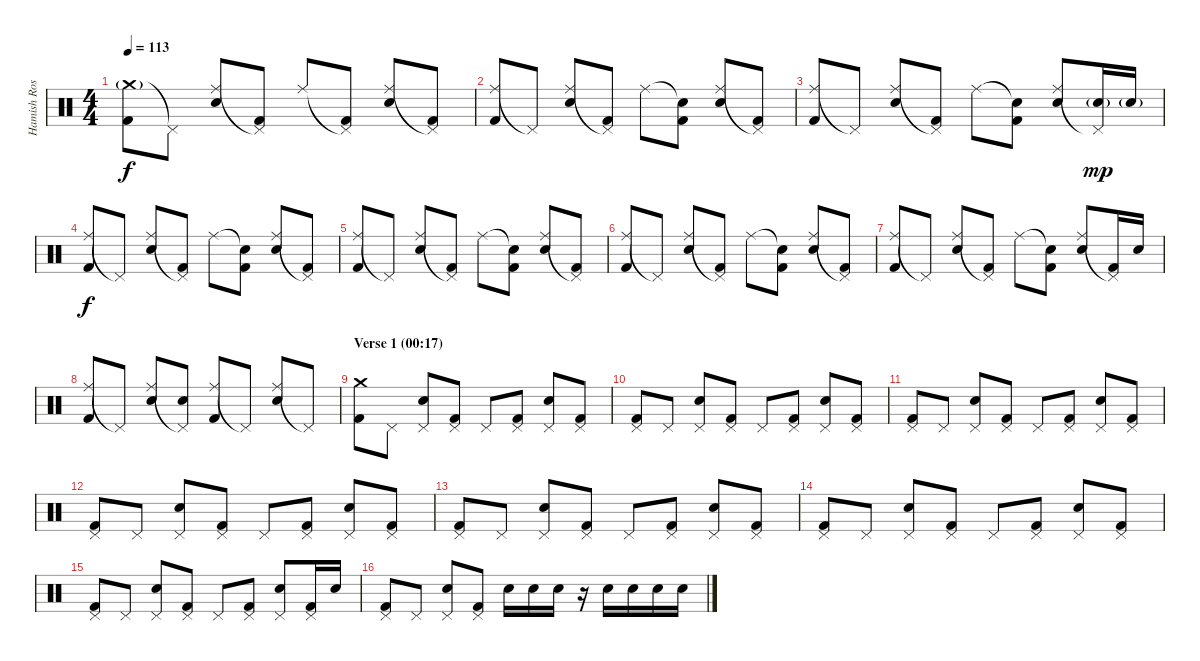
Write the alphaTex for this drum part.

\track ("Hamish Rosser" "Hamish Ros") {instrument percussion}
\staff {score}
\articulation defaults
\ts (4 4)
\tempo 113
\clef neutral
\ks c
("Crash medium (hit)"{g} "Kick (hit) 2").8{dy f} "Pedal Hi-Hat (hit)"{t}.8 ("Ride (middle)" "Electric Snare (hit)").8 ("Pedal Hi-Hat (hit)"{t} "Kick (hit) 2").8 "Ride (middle)".8 ("Pedal Hi-Hat (hit)"{t} "Kick (hit) 2").8 ("Ride (middle)" "Electric Snare (hit)").8 ("Pedal Hi-Hat (hit)"{t} "Kick (hit) 2").8 |
("Ride (middle)" "Kick (hit) 2").8 "Pedal Hi-Hat (hit)"{t}.8 ("Ride (middle)" "Electric Snare (hit)").8 ("Pedal Hi-Hat (hit)"{t} "Kick (hit) 2").8 "Ride (middle)".8 ("Snare (hit)"{t} "Kick (hit) 2").8 ("Ride (middle)" "Electric Snare (hit)").8 ("Pedal Hi-Hat (hit)"{t} "Kick (hit) 2").8 |
("Ride (middle)" "Kick (hit) 2").8 "Pedal Hi-Hat (hit)"{t}.8 ("Ride (middle)" "Electric Snare (hit)").8 ("Pedal Hi-Hat (hit)"{t} "Kick (hit) 2").8 "Ride (middle)".8 ("Snare (hit)"{t} "Kick (hit) 2").8 ("Ride (middle)" "Electric Snare (hit)").8 ("Pedal Hi-Hat (hit)"{t} "Electric Snare (hit)"{g}).16{dy mp} "Electric Snare (hit)"{g}.16 |
("Ride (middle)" "Kick (hit) 2").8{dy f} "Pedal Hi-Hat (hit)"{t}.8 ("Ride (middle)" "Electric Snare (hit)").8 ("Pedal Hi-Hat (hit)"{t} "Kick (hit) 2").8 "Ride (middle)".8 ("Snare (hit)"{t} "Kick (hit) 2").8 ("Ride (middle)" "Electric Snare (hit)").8 ("Pedal Hi-Hat (hit)"{t} "Kick (hit) 2").8 |
("Ride (middle)" "Kick (hit) 2").8 "Pedal Hi-Hat (hit)"{t}.8 ("Ride (middle)" "Electric Snare (hit)").8 ("Pedal Hi-Hat (hit)"{t} "Kick (hit) 2").8 "Ride (middle)".8 ("Snare (hit)"{t} "Kick (hit) 2").8 ("Ride (middle)" "Electric Snare (hit)").8 ("Pedal Hi-Hat (hit)"{t} "Kick (hit) 2").8 |
("Ride (middle)" "Kick (hit) 2").8 "Pedal Hi-Hat (hit)"{t}.8 ("Ride (middle)" "Electric Snare (hit)").8 ("Pedal Hi-Hat (hit)"{t} "Kick (hit) 2").8 "Ride (middle)".8 ("Snare (hit)"{t} "Kick (hit) 2").8 ("Ride (middle)" "Electric Snare (hit)").8 ("Pedal Hi-Hat (hit)"{t} "Kick (hit) 2").8 |
("Ride (middle)" "Kick (hit) 2").8 "Pedal Hi-Hat (hit)"{t}.8 ("Ride (middle)" "Electric Snare (hit)").8 ("Pedal Hi-Hat (hit)"{t} "Kick (hit) 2").8 "Ride (middle)".8 ("Snare (hit)"{t} "Kick (hit) 2").8 ("Ride (middle)" "Electric Snare (hit)").8 ("Pedal Hi-Hat (hit)"{t} "Kick (hit) 2").16 "Electric Snare (hit)".16 |
("Ride (middle)" "Kick (hit) 2").8 "Pedal Hi-Hat (hit)"{t}.8 ("Ride (middle)" "Electric Snare (hit)").8 ("Pedal Hi-Hat (hit)"{t} "Electric Snare (hit)").8 ("Ride (middle)" "Kick (hit) 2").8 "Pedal Hi-Hat (hit)"{t}.8 ("Ride (middle)" "Electric Snare (hit)").8 "Pedal Hi-Hat (hit)"{t}.8 |
\section ("" "Verse 1 (00:17)")
("Crash medium (hit)" "Kick (hit) 2").8 "Pedal Hi-Hat (hit)".8 ("Pedal Hi-Hat (hit)" "Electric Snare (hit)").8 ("Pedal Hi-Hat (hit)" "Kick (hit) 2").8 "Pedal Hi-Hat (hit)".8 ("Pedal Hi-Hat (hit)" "Kick (hit) 2").8 ("Pedal Hi-Hat (hit)" "Electric Snare (hit)").8 ("Pedal Hi-Hat (hit)" "Kick (hit) 2").8 |
("Pedal Hi-Hat (hit)" "Kick (hit) 2").8 "Pedal Hi-Hat (hit)".8 ("Pedal Hi-Hat (hit)" "Electric Snare (hit)").8 ("Pedal Hi-Hat (hit)" "Kick (hit) 2").8 "Pedal Hi-Hat (hit)".8 ("Pedal Hi-Hat (hit)" "Kick (hit) 2").8 ("Pedal Hi-Hat (hit)" "Electric Snare (hit)").8 ("Pedal Hi-Hat (hit)" "Kick (hit) 2").8 |
("Pedal Hi-Hat (hit)" "Kick (hit) 2").8 "Pedal Hi-Hat (hit)".8 ("Pedal Hi-Hat (hit)" "Electric Snare (hit)").8 ("Pedal Hi-Hat (hit)" "Kick (hit) 2").8 "Pedal Hi-Hat (hit)".8 ("Pedal Hi-Hat (hit)" "Kick (hit) 2").8 ("Pedal Hi-Hat (hit)" "Electric Snare (hit)").8 ("Pedal Hi-Hat (hit)" "Kick (hit) 2").8 |
("Pedal Hi-Hat (hit)" "Kick (hit) 2").8 "Pedal Hi-Hat (hit)".8 ("Pedal Hi-Hat (hit)" "Electric Snare (hit)").8 ("Pedal Hi-Hat (hit)" "Kick (hit) 2").8 "Pedal Hi-Hat (hit)".8 ("Pedal Hi-Hat (hit)" "Kick (hit) 2").8 ("Pedal Hi-Hat (hit)" "Electric Snare (hit)").8 ("Pedal Hi-Hat (hit)" "Kick (hit) 2").8 |
("Pedal Hi-Hat (hit)" "Kick (hit) 2").8 "Pedal Hi-Hat (hit)".8 ("Pedal Hi-Hat (hit)" "Electric Snare (hit)").8 ("Pedal Hi-Hat (hit)" "Kick (hit) 2").8 "Pedal Hi-Hat (hit)".8 ("Pedal Hi-Hat (hit)" "Kick (hit) 2").8 ("Pedal Hi-Hat (hit)" "Electric Snare (hit)").8 ("Pedal Hi-Hat (hit)" "Kick (hit) 2").8 |
("Pedal Hi-Hat (hit)" "Kick (hit) 2").8 "Pedal Hi-Hat (hit)".8 ("Pedal Hi-Hat (hit)" "Electric Snare (hit)").8 ("Pedal Hi-Hat (hit)" "Kick (hit) 2").8 "Pedal Hi-Hat (hit)".8 ("Pedal Hi-Hat (hit)" "Kick (hit) 2").8 ("Pedal Hi-Hat (hit)" "Electric Snare (hit)").8 ("Pedal Hi-Hat (hit)" "Kick (hit) 2").8 |
("Pedal Hi-Hat (hit)" "Kick (hit) 2").8 "Pedal Hi-Hat (hit)".8 ("Pedal Hi-Hat (hit)" "Electric Snare (hit)").8 ("Pedal Hi-Hat (hit)" "Kick (hit) 2").8 "Pedal Hi-Hat (hit)".8 ("Pedal Hi-Hat (hit)" "Kick (hit) 2").8 ("Pedal Hi-Hat (hit)" "Electric Snare (hit)").8 ("Pedal Hi-Hat (hit)" "Kick (hit) 2").16 "Electric Snare (hit)".16 |
("Pedal Hi-Hat (hit)" "Kick (hit) 2").8 "Pedal Hi-Hat (hit)".8 ("Pedal Hi-Hat (hit)" "Electric Snare (hit)").8 ("Pedal Hi-Hat (hit)" "Kick (hit) 2").8 "Electric Snare (hit)".16 "Electric Snare (hit)".16 "Electric Snare (hit)".16 r.16 "Electric Snare (hit)".16 "Electric Snare (hit)".16 "Electric Snare (hit)".16 "Electric Snare (hit)".16
